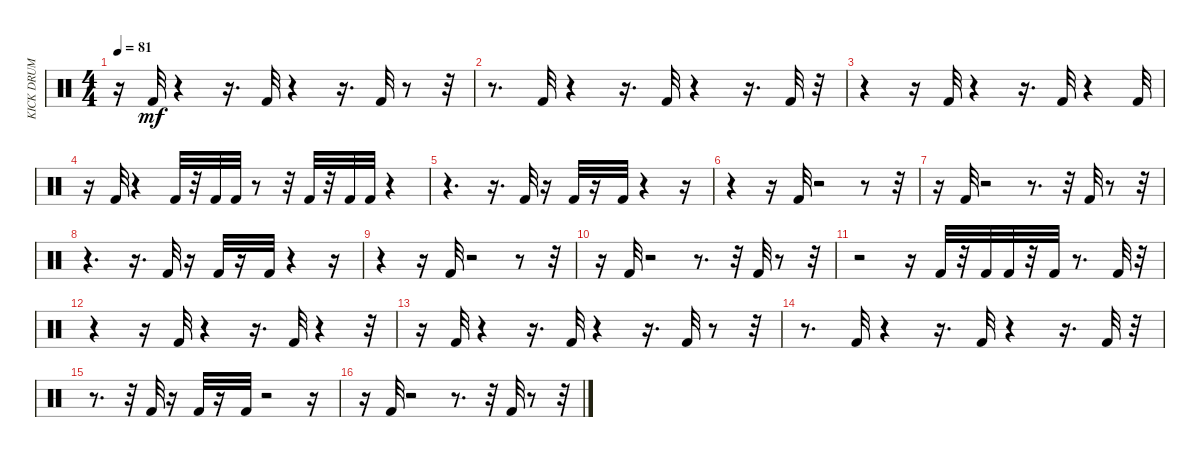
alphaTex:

\track ("KICK DRUM LOW." "KICK DRUM ") {instrument percussion}
\staff {score}
\articulation defaults
\ts (4 4)
\tempo 81
\clef neutral
\ks c
r.16{dy mf} "Kick (hit) 2".32 r.4 r.16{d} "Kick (hit) 2".32 r.4 r.16{d} "Kick (hit) 2".32 r.8 r.32 |
r.8{d} "Kick (hit) 2".32 r.4 r.16{d} "Kick (hit) 2".32 r.4 r.16{d} "Kick (hit) 2".32 r.32 |
r.4 r.16 "Kick (hit) 2".32 r.4 r.16{d} "Kick (hit) 2".32 r.4 "Kick (hit) 2".32 |
r.16 "Kick (hit) 2".32 r.4 "Kick (hit) 2".32 r.32 "Kick (hit) 2".32 "Kick (hit) 2".32 r.8 r.32 "Kick (hit) 2".32 r.32 "Kick (hit) 2".32 "Kick (hit) 2".32 r.4 |
r.4{d} r.16{d} "Kick (hit) 2".32 r.16 "Kick (hit) 2".32 r.16 "Kick (hit) 2".32 r.4 r.16 |
r.4 r.16 "Kick (hit) 2".32 r.2 r.8 r.32 |
r.16 "Kick (hit) 2".32 r.2 r.8{d} r.32 "Kick (hit) 2".32 r.8 r.32 |
r.4{d} r.16{d} "Kick (hit) 2".32 r.16 "Kick (hit) 2".32 r.16 "Kick (hit) 2".32 r.4 r.16 |
r.4 r.16 "Kick (hit) 2".32 r.2 r.8 r.32 |
r.16 "Kick (hit) 2".32 r.2 r.8{d} r.32 "Kick (hit) 2".32 r.8 r.32 |
r.2 r.16 "Kick (hit) 2".32 r.32 "Kick (hit) 2".32 "Kick (hit) 2".32 r.32 "Kick (hit) 2".32 r.8{d} "Kick (hit) 2".32 r.32 |
r.4 r.16 "Kick (hit) 2".32 r.4 r.16{d} "Kick (hit) 2".32 r.4 r.32 |
r.16 "Kick (hit) 2".32 r.4 r.16{d} "Kick (hit) 2".32 r.4 r.16{d} "Kick (hit) 2".32 r.8 r.32 |
r.8{d} "Kick (hit) 2".32 r.4 r.16{d} "Kick (hit) 2".32 r.4 r.16{d} "Kick (hit) 2".32 r.32 |
r.8{d} r.32 "Kick (hit) 2".32 r.16 "Kick (hit) 2".32 r.16 "Kick (hit) 2".32 r.2 r.16 |
r.16 "Kick (hit) 2".32 r.2 r.8{d} r.32 "Kick (hit) 2".32 r.8 r.32
